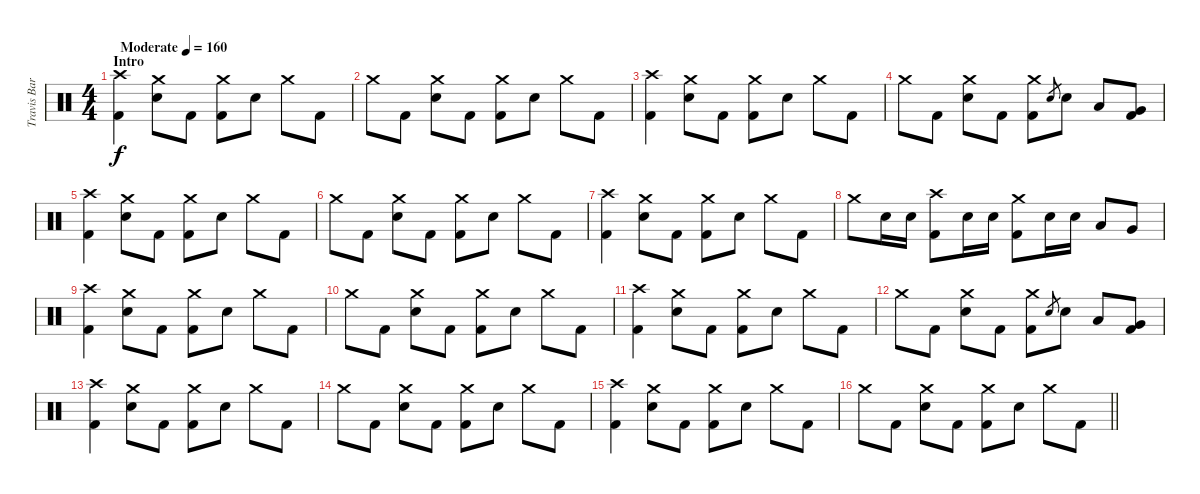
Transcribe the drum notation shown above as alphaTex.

\track ("Travis Barker - Drums" "Travis Bar") {instrument percussion}
\staff {score}
\articulation defaults
\ts (4 4)
\section ("" "Intro")
\tempo (160 "Moderate")
\clef neutral
\ks c
("Crash high (hit)" "Kick (hit) 2").4{dy f} ("Crash medium (hit)" "Electric Snare (hit)").8 "Kick (hit) 2".8 ("Crash medium (hit)" "Kick (hit) 2").8 "Electric Snare (hit)".8 "Crash medium (hit)".8 "Kick (hit) 2".8 |
"Crash medium (hit)".8 "Kick (hit) 2".8 ("Crash medium (hit)" "Electric Snare (hit)").8 "Kick (hit) 2".8 ("Crash medium (hit)" "Kick (hit) 2").8 "Electric Snare (hit)".8 "Crash medium (hit)".8 "Kick (hit) 2".8 |
("Crash high (hit)" "Kick (hit) 2").4 ("Crash medium (hit)" "Electric Snare (hit)").8 "Kick (hit) 2".8 ("Crash medium (hit)" "Kick (hit) 2").8 "Electric Snare (hit)".8 "Crash medium (hit)".8 "Kick (hit) 2".8 |
"Crash medium (hit)".8 "Kick (hit) 2".8 ("Crash medium (hit)" "Electric Snare (hit)").8 "Kick (hit) 2".8 ("Crash medium (hit)" "Kick (hit) 2").8 "Electric Snare (hit)".8{gr} "Electric Snare (hit)".8 "Low Tom (hit)".8 ("Very Low Tom (hit)" "Kick (hit) 2").8 |
("Crash high (hit)" "Kick (hit) 2").4 ("Crash medium (hit)" "Electric Snare (hit)").8 "Kick (hit) 2".8 ("Crash medium (hit)" "Kick (hit) 2").8 "Electric Snare (hit)".8 "Crash medium (hit)".8 "Kick (hit) 2".8 |
"Crash medium (hit)".8 "Kick (hit) 2".8 ("Crash medium (hit)" "Electric Snare (hit)").8 "Kick (hit) 2".8 ("Crash medium (hit)" "Kick (hit) 2").8 "Electric Snare (hit)".8 "Crash medium (hit)".8 "Kick (hit) 2".8 |
("Crash high (hit)" "Kick (hit) 2").4 ("Crash medium (hit)" "Electric Snare (hit)").8 "Kick (hit) 2".8 ("Crash medium (hit)" "Kick (hit) 2").8 "Electric Snare (hit)".8 "Crash medium (hit)".8 "Kick (hit) 2".8 |
"Crash medium (hit)".8 "Electric Snare (hit)".16 "Electric Snare (hit)".16 ("Crash high (hit)" "Kick (hit) 2").8 "Electric Snare (hit)".16 "Electric Snare (hit)".16 ("Crash medium (hit)" "Kick (hit) 2").8 "Electric Snare (hit)".16 "Electric Snare (hit)".16 "Low Tom (hit)".8 "Very Low Tom (hit)".8 |
("Crash high (hit)" "Kick (hit) 2").4 ("Crash medium (hit)" "Electric Snare (hit)").8 "Kick (hit) 2".8 ("Crash medium (hit)" "Kick (hit) 2").8 "Electric Snare (hit)".8 "Crash medium (hit)".8 "Kick (hit) 2".8 |
"Crash medium (hit)".8 "Kick (hit) 2".8 ("Crash medium (hit)" "Electric Snare (hit)").8 "Kick (hit) 2".8 ("Crash medium (hit)" "Kick (hit) 2").8 "Electric Snare (hit)".8 "Crash medium (hit)".8 "Kick (hit) 2".8 |
("Crash high (hit)" "Kick (hit) 2").4 ("Crash medium (hit)" "Electric Snare (hit)").8 "Kick (hit) 2".8 ("Crash medium (hit)" "Kick (hit) 2").8 "Electric Snare (hit)".8 "Crash medium (hit)".8 "Kick (hit) 2".8 |
"Crash medium (hit)".8 "Kick (hit) 2".8 ("Crash medium (hit)" "Electric Snare (hit)").8 "Kick (hit) 2".8 ("Crash medium (hit)" "Kick (hit) 2").8 "Electric Snare (hit)".8{gr} "Electric Snare (hit)".8 "Low Tom (hit)".8 ("Very Low Tom (hit)" "Kick (hit) 2").8 |
("Crash high (hit)" "Kick (hit) 2").4 ("Crash medium (hit)" "Electric Snare (hit)").8 "Kick (hit) 2".8 ("Crash medium (hit)" "Kick (hit) 2").8 "Electric Snare (hit)".8 "Crash medium (hit)".8 "Kick (hit) 2".8 |
"Crash medium (hit)".8 "Kick (hit) 2".8 ("Crash medium (hit)" "Electric Snare (hit)").8 "Kick (hit) 2".8 ("Crash medium (hit)" "Kick (hit) 2").8 "Electric Snare (hit)".8 "Crash medium (hit)".8 "Kick (hit) 2".8 |
("Crash high (hit)" "Kick (hit) 2").4 ("Crash medium (hit)" "Electric Snare (hit)").8 "Kick (hit) 2".8 ("Crash medium (hit)" "Kick (hit) 2").8 "Electric Snare (hit)".8 "Crash medium (hit)".8 "Kick (hit) 2".8 |
\barLineRight lightlight "Crash medium (hit)".8 "Kick (hit) 2".8
("Crash medium (hit)" "Electric Snare (hit)").8 "Kick (hit) 2".8 ("Crash medium (hit)" "Kick (hit) 2").8 "Electric Snare (hit)".8 "Crash medium (hit)".8 "Kick (hit) 2".8
